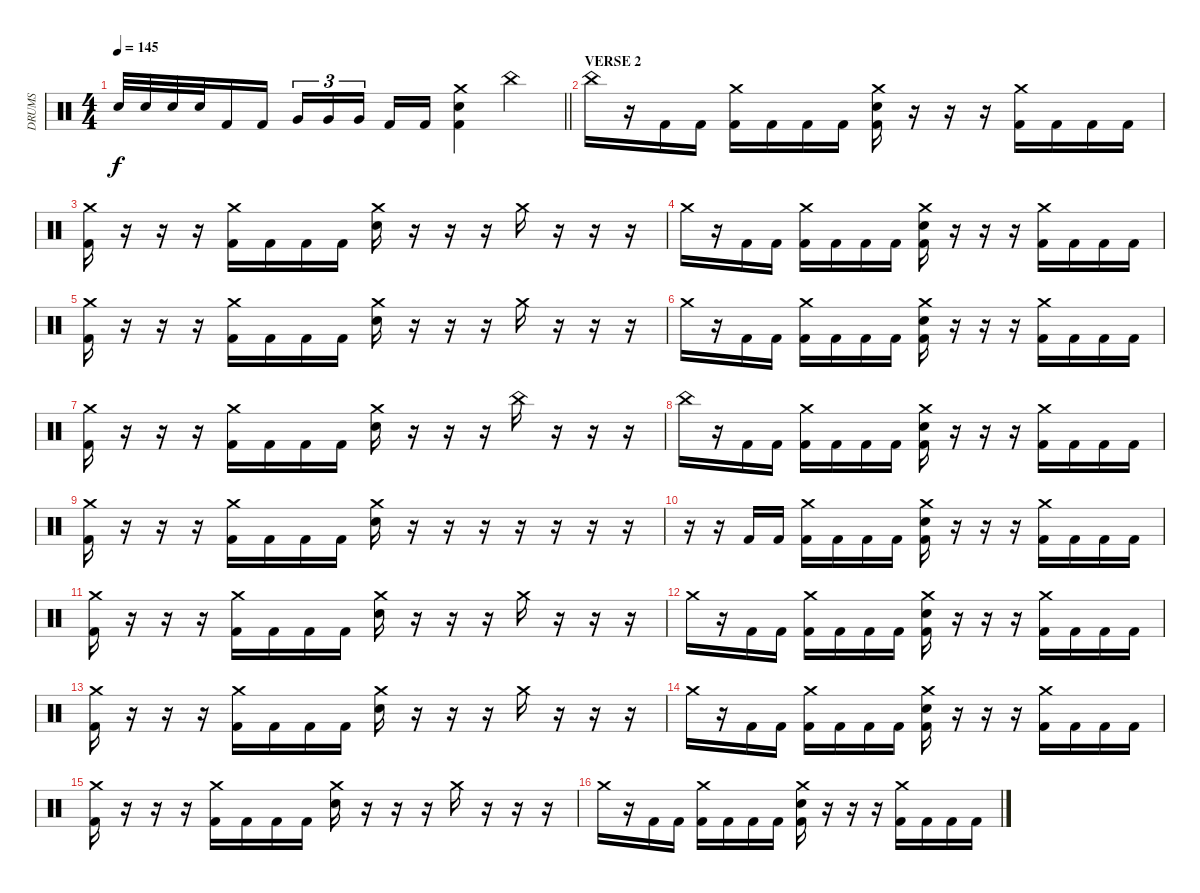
\track ("DRUMS" "DRUMS") {instrument percussion}
\staff {score}
\articulation defaults
\ts (4 4)
\tempo 145
\clef neutral
\barLineRight lightlight
\ks c "Electric Snare (hit)".32{dy f} "Electric Snare (hit)".32 "Electric Snare (hit)".32 "Electric Snare (hit)".32 "Kick (hit) 2".16 "Kick (hit) 2".16 "Very Low Tom (hit)".16{tu (3 2)} "Very Low Tom (hit)".16{tu (3 2)} "Very Low Tom (hit)".16{tu (3 2) beam splitsecondary} "Kick (hit) 2".16 "Kick (hit) 2".16
("Crash medium (hit)" "Electric Snare (hit)" "Kick (hit) 2").4 "China (hit)".4 |
\section ("" "VERSE 2")
"China (hit)".16 r.16 "Kick (hit) 2".16 "Kick (hit) 2".16 ("Crash medium (hit)" "Kick (hit) 2").16 "Kick (hit) 2".16 "Kick (hit) 2".16 "Kick (hit) 2".16 ("Crash medium (hit)" "Electric Snare (hit)" "Kick (hit) 2").16 r.16 r.16 r.16 ("Crash medium (hit)" "Kick (hit) 2").16 "Kick (hit) 2".16 "Kick (hit) 2".16 "Kick (hit) 2".16 |
("Crash medium (hit)" "Kick (hit) 2").16 r.16 r.16 r.16 ("Crash medium (hit)" "Kick (hit) 2").16 "Kick (hit) 2".16 "Kick (hit) 2".16 "Kick (hit) 2".16 ("Crash medium (hit)" "Electric Snare (hit)").16 r.16 r.16 r.16 "Crash medium (hit)".16 r.16 r.16 r.16 |
"Crash medium (hit)".16 r.16 "Kick (hit) 2".16 "Kick (hit) 2".16 ("Crash medium (hit)" "Kick (hit) 2").16 "Kick (hit) 2".16 "Kick (hit) 2".16 "Kick (hit) 2".16 ("Crash medium (hit)" "Electric Snare (hit)" "Kick (hit) 2").16 r.16 r.16 r.16 ("Crash medium (hit)" "Kick (hit) 2").16 "Kick (hit) 2".16 "Kick (hit) 2".16 "Kick (hit) 2".16 |
("Crash medium (hit)" "Kick (hit) 2").16 r.16 r.16 r.16 ("Crash medium (hit)" "Kick (hit) 2").16 "Kick (hit) 2".16 "Kick (hit) 2".16 "Kick (hit) 2".16 ("Crash medium (hit)" "Electric Snare (hit)").16 r.16 r.16 r.16 "Crash medium (hit)".16 r.16 r.16 r.16 |
"Crash medium (hit)".16 r.16 "Kick (hit) 2".16 "Kick (hit) 2".16 ("Crash medium (hit)" "Kick (hit) 2").16 "Kick (hit) 2".16 "Kick (hit) 2".16 "Kick (hit) 2".16 ("Crash medium (hit)" "Electric Snare (hit)" "Kick (hit) 2").16 r.16 r.16 r.16 ("Crash medium (hit)" "Kick (hit) 2").16 "Kick (hit) 2".16 "Kick (hit) 2".16 "Kick (hit) 2".16 |
("Crash medium (hit)" "Kick (hit) 2").16 r.16 r.16 r.16 ("Crash medium (hit)" "Kick (hit) 2").16 "Kick (hit) 2".16 "Kick (hit) 2".16 "Kick (hit) 2".16 ("Crash medium (hit)" "Electric Snare (hit)").16 r.16 r.16 r.16 "China (hit)".16 r.16 r.16 r.16 |
"China (hit)".16 r.16 "Kick (hit) 2".16 "Kick (hit) 2".16 ("Crash medium (hit)" "Kick (hit) 2").16 "Kick (hit) 2".16 "Kick (hit) 2".16 "Kick (hit) 2".16 ("Crash medium (hit)" "Electric Snare (hit)" "Kick (hit) 2").16 r.16 r.16 r.16 ("Crash medium (hit)" "Kick (hit) 2").16 "Kick (hit) 2".16 "Kick (hit) 2".16 "Kick (hit) 2".16 |
("Crash medium (hit)" "Kick (hit) 2").16 r.16 r.16 r.16 ("Crash medium (hit)" "Kick (hit) 2").16 "Kick (hit) 2".16 "Kick (hit) 2".16 "Kick (hit) 2".16 ("Crash medium (hit)" "Electric Snare (hit)").16 r.16 r.16 r.16 r.16 r.16 r.16 r.16 |
r.16 r.16 "Kick (hit) 2".16 "Kick (hit) 2".16 ("Crash medium (hit)" "Kick (hit) 2").16 "Kick (hit) 2".16 "Kick (hit) 2".16 "Kick (hit) 2".16 ("Crash medium (hit)" "Electric Snare (hit)" "Kick (hit) 2").16 r.16 r.16 r.16 ("Crash medium (hit)" "Kick (hit) 2").16 "Kick (hit) 2".16 "Kick (hit) 2".16 "Kick (hit) 2".16 |
("Crash medium (hit)" "Kick (hit) 2").16 r.16 r.16 r.16 ("Crash medium (hit)" "Kick (hit) 2").16 "Kick (hit) 2".16 "Kick (hit) 2".16 "Kick (hit) 2".16 ("Crash medium (hit)" "Electric Snare (hit)").16 r.16 r.16 r.16 "Crash medium (hit)".16 r.16 r.16 r.16 |
"Crash medium (hit)".16 r.16 "Kick (hit) 2".16 "Kick (hit) 2".16 ("Crash medium (hit)" "Kick (hit) 2").16 "Kick (hit) 2".16 "Kick (hit) 2".16 "Kick (hit) 2".16 ("Crash medium (hit)" "Electric Snare (hit)" "Kick (hit) 2").16 r.16 r.16 r.16 ("Crash medium (hit)" "Kick (hit) 2").16 "Kick (hit) 2".16 "Kick (hit) 2".16 "Kick (hit) 2".16 |
("Crash medium (hit)" "Kick (hit) 2").16 r.16 r.16 r.16 ("Crash medium (hit)" "Kick (hit) 2").16 "Kick (hit) 2".16 "Kick (hit) 2".16 "Kick (hit) 2".16 ("Crash medium (hit)" "Electric Snare (hit)").16 r.16 r.16 r.16 "Crash medium (hit)".16 r.16 r.16 r.16 |
"Crash medium (hit)".16 r.16 "Kick (hit) 2".16 "Kick (hit) 2".16 ("Crash medium (hit)" "Kick (hit) 2").16 "Kick (hit) 2".16 "Kick (hit) 2".16 "Kick (hit) 2".16 ("Crash medium (hit)" "Electric Snare (hit)" "Kick (hit) 2").16 r.16 r.16 r.16 ("Crash medium (hit)" "Kick (hit) 2").16 "Kick (hit) 2".16 "Kick (hit) 2".16 "Kick (hit) 2".16 |
("Crash medium (hit)" "Kick (hit) 2").16 r.16 r.16 r.16 ("Crash medium (hit)" "Kick (hit) 2").16 "Kick (hit) 2".16 "Kick (hit) 2".16 "Kick (hit) 2".16 ("Crash medium (hit)" "Electric Snare (hit)").16 r.16 r.16 r.16 "Crash medium (hit)".16 r.16 r.16 r.16 |
"Crash medium (hit)".16 r.16 "Kick (hit) 2".16 "Kick (hit) 2".16 ("Crash medium (hit)" "Kick (hit) 2").16 "Kick (hit) 2".16 "Kick (hit) 2".16 "Kick (hit) 2".16 ("Crash medium (hit)" "Electric Snare (hit)" "Kick (hit) 2").16 r.16 r.16 r.16 ("Crash medium (hit)" "Kick (hit) 2").16 "Kick (hit) 2".16 "Kick (hit) 2".16 "Kick (hit) 2".16
